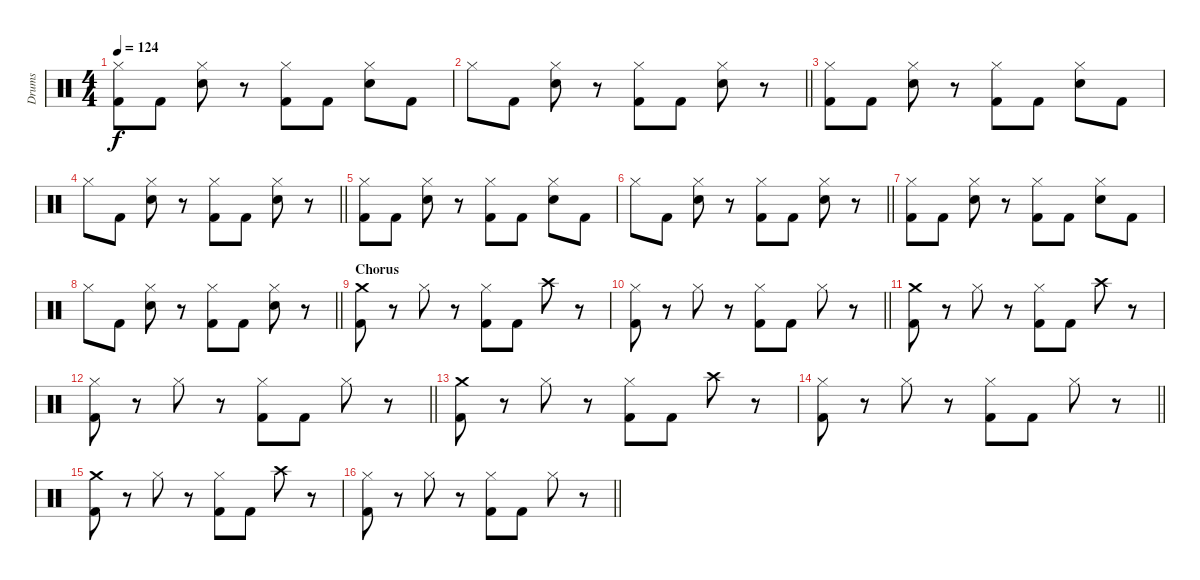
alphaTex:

\track ("Drums" "Drums") {instrument percussion}
\staff {score}
\articulation defaults
\ts (4 4)
\tempo 124
\clef neutral
\ks c
("Hi-Hat (closed)" "Kick (hit) 2").8{dy f} "Kick (hit) 2".8 ("Hi-Hat (closed)" "Snare (hit) 2").8 r.8 ("Hi-Hat (closed)" "Kick (hit) 2").8 "Kick (hit) 2".8 ("Hi-Hat (closed)" "Snare (hit) 2").8 "Kick (hit) 2".8 |
\barLineRight lightlight "Hi-Hat (closed)".8 "Kick (hit) 2".8
("Hi-Hat (closed)" "Snare (hit) 2").8 r.8 ("Hi-Hat (closed)" "Kick (hit) 2").8 "Kick (hit) 2".8 ("Hi-Hat (closed)" "Snare (hit) 2").8 r.8 |
("Hi-Hat (closed)" "Kick (hit) 2").8 "Kick (hit) 2".8 ("Hi-Hat (closed)" "Snare (hit) 2").8 r.8 ("Hi-Hat (closed)" "Kick (hit) 2").8 "Kick (hit) 2".8 ("Hi-Hat (closed)" "Snare (hit) 2").8 "Kick (hit) 2".8 |
\barLineRight lightlight "Hi-Hat (closed)".8 "Kick (hit) 2".8
("Hi-Hat (closed)" "Snare (hit) 2").8 r.8 ("Hi-Hat (closed)" "Kick (hit) 2").8 "Kick (hit) 2".8 ("Hi-Hat (closed)" "Snare (hit) 2").8 r.8 |
("Hi-Hat (closed)" "Kick (hit) 2").8 "Kick (hit) 2".8 ("Hi-Hat (closed)" "Snare (hit) 2").8 r.8 ("Hi-Hat (closed)" "Kick (hit) 2").8 "Kick (hit) 2".8 ("Hi-Hat (closed)" "Snare (hit) 2").8 "Kick (hit) 2".8 |
\barLineRight lightlight "Hi-Hat (closed)".8 "Kick (hit) 2".8
("Hi-Hat (closed)" "Snare (hit) 2").8 r.8 ("Hi-Hat (closed)" "Kick (hit) 2").8 "Kick (hit) 2".8 ("Hi-Hat (closed)" "Snare (hit) 2").8 r.8 |
("Hi-Hat (closed)" "Kick (hit) 2").8 "Kick (hit) 2".8 ("Hi-Hat (closed)" "Snare (hit) 2").8 r.8 ("Hi-Hat (closed)" "Kick (hit) 2").8 "Kick (hit) 2".8 ("Hi-Hat (closed)" "Snare (hit) 2").8 "Kick (hit) 2".8 |
\barLineRight lightlight "Hi-Hat (closed)".8 "Kick (hit) 2".8
("Hi-Hat (closed)" "Snare (hit) 2").8 r.8 ("Hi-Hat (closed)" "Kick (hit) 2").8 "Kick (hit) 2".8 ("Hi-Hat (closed)" "Snare (hit) 2").8 r.8 |
\section ("" "Chorus")
("Crash medium (hit)" "Kick (hit) 2").8 r.8 "Hi-Hat (closed)".8 r.8 ("Hi-Hat (closed)" "Kick (hit) 2").8 "Kick (hit) 2".8 "Crash high (hit)".8 r.8 |
\barLineRight lightlight
("Hi-Hat (closed)" "Kick (hit) 2").8 r.8 "Hi-Hat (closed)".8 r.8 ("Hi-Hat (closed)" "Kick (hit) 2").8 "Kick (hit) 2".8 "Hi-Hat (closed)".8 r.8 |
("Crash medium (hit)" "Kick (hit) 2").8 r.8 "Hi-Hat (closed)".8 r.8 ("Hi-Hat (closed)" "Kick (hit) 2").8 "Kick (hit) 2".8 "Crash high (hit)".8 r.8 |
\barLineRight lightlight
("Hi-Hat (closed)" "Kick (hit) 2").8 r.8 "Hi-Hat (closed)".8 r.8 ("Hi-Hat (closed)" "Kick (hit) 2").8 "Kick (hit) 2".8 "Hi-Hat (closed)".8 r.8 |
("Crash medium (hit)" "Kick (hit) 2").8 r.8 "Hi-Hat (closed)".8 r.8 ("Hi-Hat (closed)" "Kick (hit) 2").8 "Kick (hit) 2".8 "Crash high (hit)".8 r.8 |
\barLineRight lightlight
("Hi-Hat (closed)" "Kick (hit) 2").8 r.8 "Hi-Hat (closed)".8 r.8 ("Hi-Hat (closed)" "Kick (hit) 2").8 "Kick (hit) 2".8 "Hi-Hat (closed)".8 r.8 |
("Crash medium (hit)" "Kick (hit) 2").8 r.8 "Hi-Hat (closed)".8 r.8 ("Hi-Hat (closed)" "Kick (hit) 2").8 "Kick (hit) 2".8 "Crash high (hit)".8 r.8 |
\barLineRight lightlight
("Hi-Hat (closed)" "Kick (hit) 2").8 r.8 "Hi-Hat (closed)".8 r.8 ("Hi-Hat (closed)" "Kick (hit) 2").8 "Kick (hit) 2".8 "Hi-Hat (closed)".8 r.8
